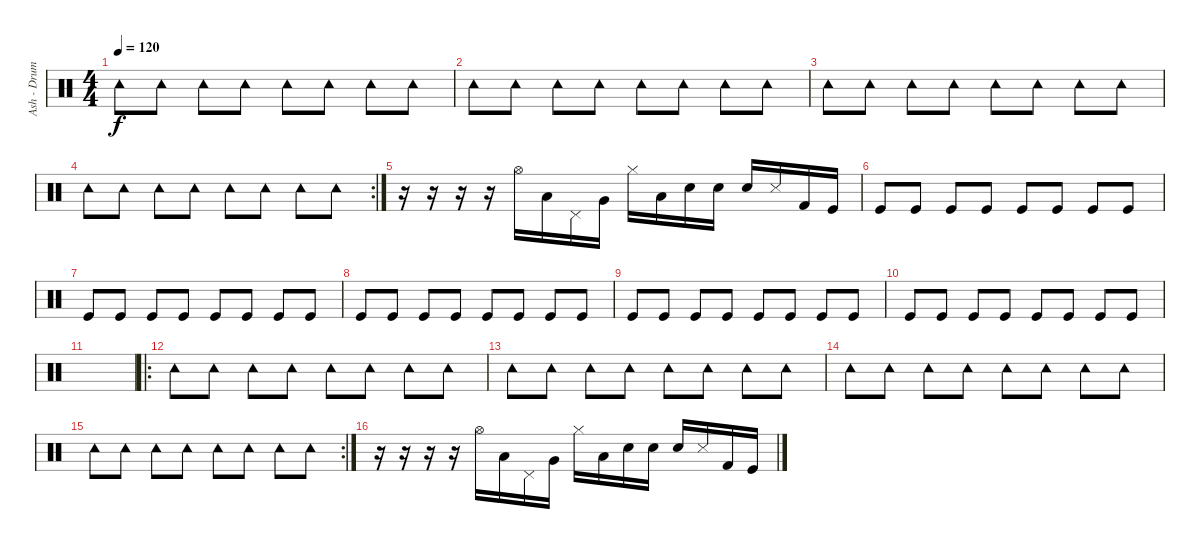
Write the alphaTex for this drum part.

\track ("Ash - Drums" "Ash - Drum") {instrument percussion}
\staff {score}
\articulation defaults
\ts (4 4)
\tempo 120
\clef neutral
\ks c "Tambourine (hit)".8{dy f} "Tambourine (hit)".8 "Tambourine (hit)".8 "Tambourine (hit)".8 "Tambourine (hit)".8 "Tambourine (hit)".8 "Tambourine (hit)".8 "Tambourine (hit)".8
|
"Tambourine (hit)".8 "Tambourine (hit)".8 "Tambourine (hit)".8 "Tambourine (hit)".8 "Tambourine (hit)".8 "Tambourine (hit)".8 "Tambourine (hit)".8 "Tambourine (hit)".8 |
"Tambourine (hit)".8 "Tambourine (hit)".8 "Tambourine (hit)".8 "Tambourine (hit)".8 "Tambourine (hit)".8 "Tambourine (hit)".8 "Tambourine (hit)".8 "Tambourine (hit)".8 |
\rc 2 "Tambourine (hit)".8 "Tambourine (hit)".8 "Tambourine (hit)".8 "Tambourine (hit)".8 "Tambourine (hit)".8 "Tambourine (hit)".8 "Tambourine (hit)".8 "Tambourine (hit)".8
|
r.16 r.16 r.16 r.16 "Hi-Hat (open)".16 "Low Tom (hit)".16 "Pedal Hi-Hat (hit)".16 "Very Low Tom (hit)".16 "Hi-Hat (closed)".16 "Low Floor Tom (hit)".16 "Electric Snare (hit)".16 "Hand Clap (hit)".16 "Snare (hit) 2".16 "Snare (side stick) 3".16 "Kick (hit) 2".16 "Kick (hit)".16 |
"Kick (hit)".8 "Kick (hit)".8 "Kick (hit)".8 "Kick (hit)".8 "Kick (hit)".8 "Kick (hit)".8 "Kick (hit)".8 "Kick (hit)".8 |
"Kick (hit)".8 "Kick (hit)".8 "Kick (hit)".8 "Kick (hit)".8 "Kick (hit)".8 "Kick (hit)".8 "Kick (hit)".8 "Kick (hit)".8 |
"Kick (hit)".8 "Kick (hit)".8 "Kick (hit)".8 "Kick (hit)".8 "Kick (hit)".8 "Kick (hit)".8 "Kick (hit)".8 "Kick (hit)".8 |
"Kick (hit)".8 "Kick (hit)".8 "Kick (hit)".8 "Kick (hit)".8 "Kick (hit)".8 "Kick (hit)".8 "Kick (hit)".8 "Kick (hit)".8 |
"Kick (hit)".8 "Kick (hit)".8 "Kick (hit)".8 "Kick (hit)".8 "Kick (hit)".8 "Kick (hit)".8 "Kick (hit)".8 "Kick (hit)".8 |
|
\ro "Tambourine (hit)".8 "Tambourine (hit)".8 "Tambourine (hit)".8 "Tambourine (hit)".8 "Tambourine (hit)".8 "Tambourine (hit)".8 "Tambourine (hit)".8 "Tambourine (hit)".8
|
"Tambourine (hit)".8 "Tambourine (hit)".8 "Tambourine (hit)".8 "Tambourine (hit)".8 "Tambourine (hit)".8 "Tambourine (hit)".8 "Tambourine (hit)".8 "Tambourine (hit)".8 |
"Tambourine (hit)".8 "Tambourine (hit)".8 "Tambourine (hit)".8 "Tambourine (hit)".8 "Tambourine (hit)".8 "Tambourine (hit)".8 "Tambourine (hit)".8 "Tambourine (hit)".8 |
\rc 2 "Tambourine (hit)".8 "Tambourine (hit)".8 "Tambourine (hit)".8 "Tambourine (hit)".8 "Tambourine (hit)".8 "Tambourine (hit)".8 "Tambourine (hit)".8 "Tambourine (hit)".8
|
r.16 r.16 r.16 r.16 "Hi-Hat (open)".16 "Low Tom (hit)".16 "Pedal Hi-Hat (hit)".16 "Very Low Tom (hit)".16 "Hi-Hat (closed)".16 "Low Floor Tom (hit)".16 "Electric Snare (hit)".16 "Hand Clap (hit)".16 "Snare (hit) 2".16 "Snare (side stick) 3".16 "Kick (hit) 2".16 "Kick (hit)".16
